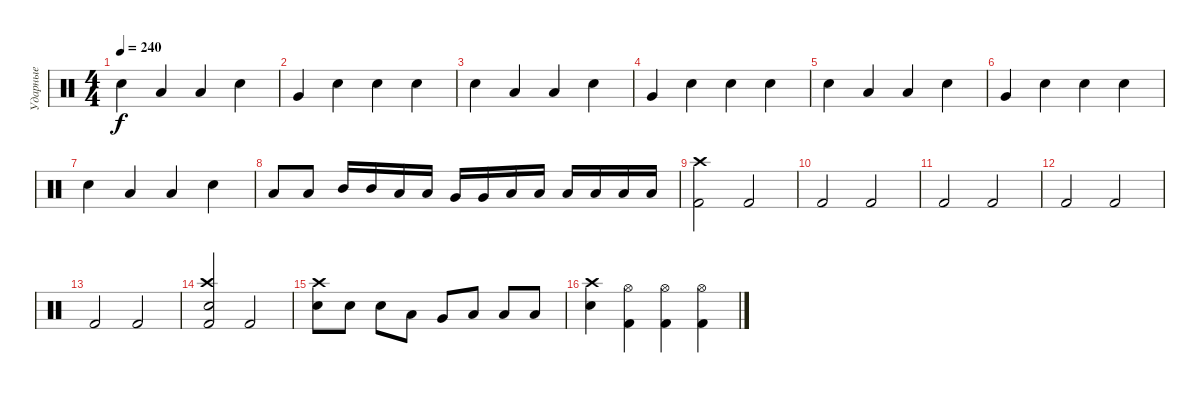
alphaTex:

\track ("Ударные" "Ударные") {instrument percussion}
\staff {score}
\articulation defaults
\ts (4 4)
\tempo 240
\clef neutral
\ks c "Electric Snare (hit)".4{dy f} "Low Tom (hit)".4 "Low Tom (hit)".4 "Electric Snare (hit)".4
|
"Very Low Tom (hit)".4 "Electric Snare (hit)".4 "Electric Snare (hit)".4 "Electric Snare (hit)".4 |
"Electric Snare (hit)".4 "Low Tom (hit)".4 "Low Tom (hit)".4 "Electric Snare (hit)".4 |
"Very Low Tom (hit)".4 "Electric Snare (hit)".4 "Electric Snare (hit)".4 "Electric Snare (hit)".4 |
"Electric Snare (hit)".4 "Low Tom (hit)".4 "Low Tom (hit)".4 "Electric Snare (hit)".4 |
"Very Low Tom (hit)".4 "Electric Snare (hit)".4 "Electric Snare (hit)".4 "Electric Snare (hit)".4 |
"Electric Snare (hit)".4 "Low Tom (hit)".4 "Low Tom (hit)".4 "Electric Snare (hit)".4 |
"Low Tom (hit)".8 "Low Tom (hit)".8 "Mid Tom (hit)".16 "Mid Tom (hit)".16 "Low Tom (hit)".16 "Low Tom (hit)".16 "Very Low Tom (hit)".16 "Very Low Tom (hit)".16 "Low Floor Tom (hit)".16 "Low Floor Tom (hit)".16 "Low Floor Tom (hit)".16 "Low Floor Tom (hit)".16 "Low Floor Tom (hit)".16 "Low Floor Tom (hit)".16 |
("Crash high (hit)" "Kick (hit) 2").2 "Kick (hit) 2".2 |
"Kick (hit) 2".2 "Kick (hit) 2".2 |
"Kick (hit) 2".2 "Kick (hit) 2".2 |
"Kick (hit) 2".2 "Kick (hit) 2".2 |
"Kick (hit) 2".2 "Kick (hit) 2".2 |
("Crash high (hit)" "Electric Snare (hit)" "Kick (hit) 2").2 "Kick (hit) 2".2 |
("Crash high (hit)" "Electric Snare (hit)").8 "Electric Snare (hit)".8 "Electric Snare (hit)".8 "Low Tom (hit)".8 "Very Low Tom (hit)".8 "Low Floor Tom (hit)".8 "Low Floor Tom (hit)".8 "Low Floor Tom (hit)".8 |
("Crash high (hit)" "Electric Snare (hit)").4 ("Hi-Hat (open)" "Kick (hit) 2").4 ("Hi-Hat (open)" "Kick (hit) 2").4 ("Hi-Hat (open)" "Kick (hit) 2").4
